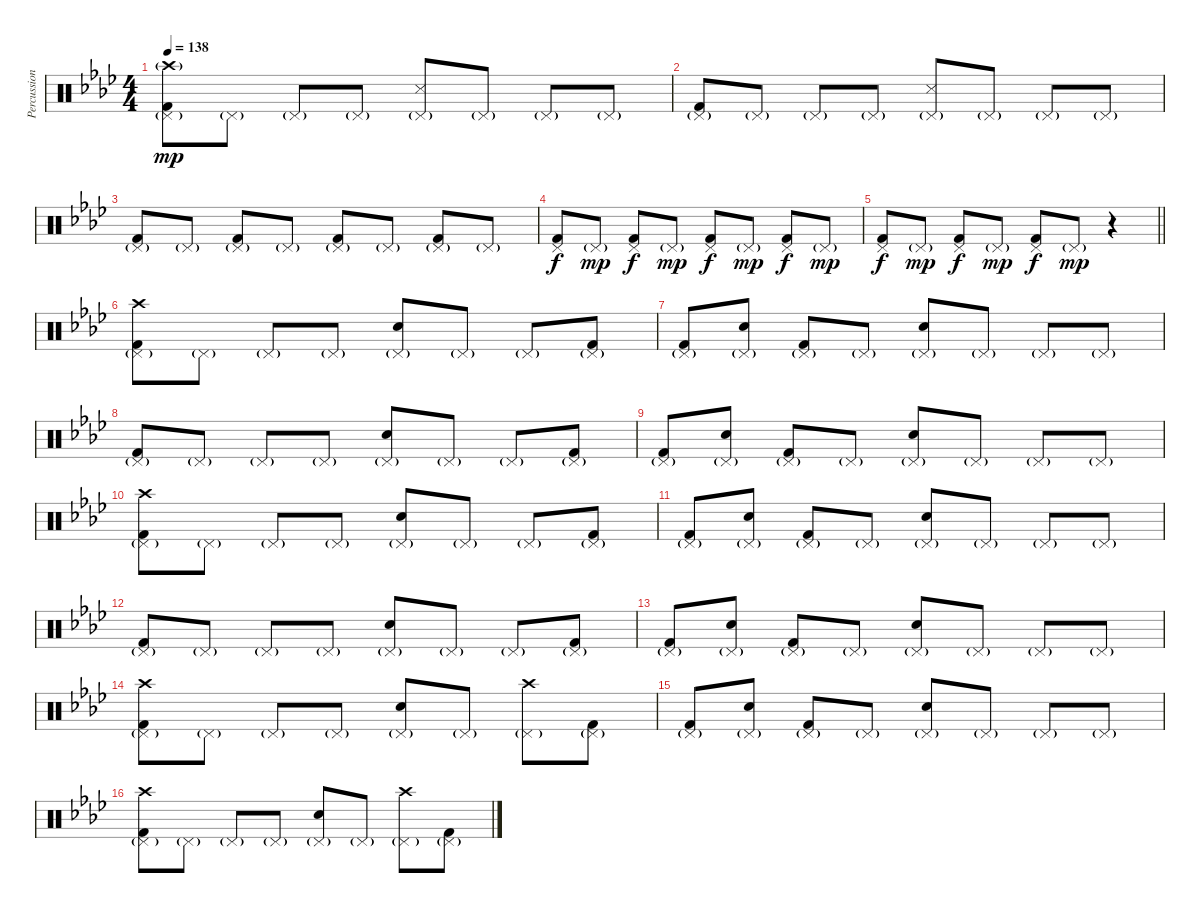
\track ("Percussion" "Percussion") {instrument percussion}
\staff {score}
\articulation defaults
\ts (4 4)
\tempo 138
\clef neutral
\ks ab
("Crash high (hit)"{g} "Kick (hit) 2" "Pedal Hi-Hat (hit)"{g}).8{dy mp} "Pedal Hi-Hat (hit)"{g}.8 "Pedal Hi-Hat (hit)"{g}.8 "Pedal Hi-Hat (hit)"{g}.8 ("Snare (side stick) 3" "Pedal Hi-Hat (hit)"{g}).8 "Pedal Hi-Hat (hit)"{g}.8 "Pedal Hi-Hat (hit)"{g}.8 "Pedal Hi-Hat (hit)"{g}.8 |
("Kick (hit) 2" "Pedal Hi-Hat (hit)"{g}).8 "Pedal Hi-Hat (hit)"{g}.8 "Pedal Hi-Hat (hit)"{g}.8 "Pedal Hi-Hat (hit)"{g}.8 ("Snare (side stick) 3" "Pedal Hi-Hat (hit)"{g}).8 "Pedal Hi-Hat (hit)"{g}.8 "Pedal Hi-Hat (hit)"{g}.8 "Pedal Hi-Hat (hit)"{g}.8 |
("Pedal Hi-Hat (hit)"{g} "Kick (hit) 2").8 "Pedal Hi-Hat (hit)"{g}.8 ("Pedal Hi-Hat (hit)"{g} "Kick (hit) 2").8 "Pedal Hi-Hat (hit)"{g}.8 ("Pedal Hi-Hat (hit)"{g} "Kick (hit) 2").8 "Pedal Hi-Hat (hit)"{g}.8 ("Pedal Hi-Hat (hit)"{g} "Kick (hit) 2").8 "Pedal Hi-Hat (hit)"{g}.8 |
("Pedal Hi-Hat (hit)" "Kick (hit) 2").8{dy f} "Pedal Hi-Hat (hit)"{g}.8{dy mp} ("Pedal Hi-Hat (hit)" "Kick (hit) 2").8{dy f} "Pedal Hi-Hat (hit)"{g}.8{dy mp} ("Pedal Hi-Hat (hit)" "Kick (hit) 2").8{dy f} "Pedal Hi-Hat (hit)"{g}.8{dy mp} ("Pedal Hi-Hat (hit)" "Kick (hit) 2").8{dy f} "Pedal Hi-Hat (hit)"{g}.8{dy mp} |
\barLineRight lightlight
("Pedal Hi-Hat (hit)" "Kick (hit) 2").8{dy f} "Pedal Hi-Hat (hit)"{g}.8{dy mp} ("Pedal Hi-Hat (hit)" "Kick (hit) 2").8{dy f} "Pedal Hi-Hat (hit)"{g}.8{dy mp} ("Pedal Hi-Hat (hit)" "Kick (hit) 2").8{dy f} "Pedal Hi-Hat (hit)"{g}.8{dy mp} r.4 |
("Crash high (hit)" "Pedal Hi-Hat (hit)"{g} "Kick (hit) 2").8 "Pedal Hi-Hat (hit)"{g}.8 "Pedal Hi-Hat (hit)"{g}.8 "Pedal Hi-Hat (hit)"{g}.8 ("Snare (hit) 2" "Pedal Hi-Hat (hit)"{g}).8 "Pedal Hi-Hat (hit)"{g}.8 "Pedal Hi-Hat (hit)"{g}.8 ("Pedal Hi-Hat (hit)"{g} "Kick (hit) 2").8 |
("Pedal Hi-Hat (hit)"{g} "Kick (hit) 2").8 ("Snare (hit) 2" "Pedal Hi-Hat (hit)"{g}).8 ("Pedal Hi-Hat (hit)"{g} "Kick (hit) 2").8 "Pedal Hi-Hat (hit)"{g}.8 ("Snare (hit) 2" "Pedal Hi-Hat (hit)"{g}).8 "Pedal Hi-Hat (hit)"{g}.8 "Pedal Hi-Hat (hit)"{g}.8 "Pedal Hi-Hat (hit)"{g}.8 |
("Pedal Hi-Hat (hit)"{g} "Kick (hit) 2").8 "Pedal Hi-Hat (hit)"{g}.8 "Pedal Hi-Hat (hit)"{g}.8 "Pedal Hi-Hat (hit)"{g}.8 ("Snare (hit) 2" "Pedal Hi-Hat (hit)"{g}).8 "Pedal Hi-Hat (hit)"{g}.8 "Pedal Hi-Hat (hit)"{g}.8 ("Pedal Hi-Hat (hit)"{g} "Kick (hit) 2").8 |
("Pedal Hi-Hat (hit)"{g} "Kick (hit) 2").8 ("Snare (hit) 2" "Pedal Hi-Hat (hit)"{g}).8 ("Pedal Hi-Hat (hit)"{g} "Kick (hit) 2").8 "Pedal Hi-Hat (hit)"{g}.8 ("Snare (hit) 2" "Pedal Hi-Hat (hit)"{g}).8 "Pedal Hi-Hat (hit)"{g}.8 "Pedal Hi-Hat (hit)"{g}.8 "Pedal Hi-Hat (hit)"{g}.8 |
("Crash high (hit)" "Pedal Hi-Hat (hit)"{g} "Kick (hit) 2").8 "Pedal Hi-Hat (hit)"{g}.8 "Pedal Hi-Hat (hit)"{g}.8 "Pedal Hi-Hat (hit)"{g}.8 ("Snare (hit) 2" "Pedal Hi-Hat (hit)"{g}).8 "Pedal Hi-Hat (hit)"{g}.8 "Pedal Hi-Hat (hit)"{g}.8 ("Pedal Hi-Hat (hit)"{g} "Kick (hit) 2").8 |
("Pedal Hi-Hat (hit)"{g} "Kick (hit) 2").8 ("Snare (hit) 2" "Pedal Hi-Hat (hit)"{g}).8 ("Pedal Hi-Hat (hit)"{g} "Kick (hit) 2").8 "Pedal Hi-Hat (hit)"{g}.8 ("Snare (hit) 2" "Pedal Hi-Hat (hit)"{g}).8 "Pedal Hi-Hat (hit)"{g}.8 "Pedal Hi-Hat (hit)"{g}.8 "Pedal Hi-Hat (hit)"{g}.8 |
("Pedal Hi-Hat (hit)"{g} "Kick (hit) 2").8 "Pedal Hi-Hat (hit)"{g}.8 "Pedal Hi-Hat (hit)"{g}.8 "Pedal Hi-Hat (hit)"{g}.8 ("Snare (hit) 2" "Pedal Hi-Hat (hit)"{g}).8 "Pedal Hi-Hat (hit)"{g}.8 "Pedal Hi-Hat (hit)"{g}.8 ("Pedal Hi-Hat (hit)"{g} "Kick (hit) 2").8 |
("Pedal Hi-Hat (hit)"{g} "Kick (hit) 2").8 ("Snare (hit) 2" "Pedal Hi-Hat (hit)"{g}).8 ("Pedal Hi-Hat (hit)"{g} "Kick (hit) 2").8 "Pedal Hi-Hat (hit)"{g}.8 ("Snare (hit) 2" "Pedal Hi-Hat (hit)"{g}).8 "Pedal Hi-Hat (hit)"{g}.8 "Pedal Hi-Hat (hit)"{g}.8 "Pedal Hi-Hat (hit)"{g}.8 |
("Crash high (hit)" "Pedal Hi-Hat (hit)"{g} "Kick (hit) 2").8 "Pedal Hi-Hat (hit)"{g}.8 "Pedal Hi-Hat (hit)"{g}.8 "Pedal Hi-Hat (hit)"{g}.8 ("Snare (hit) 2" "Pedal Hi-Hat (hit)"{g}).8 "Pedal Hi-Hat (hit)"{g}.8 ("Crash high (hit)" "Pedal Hi-Hat (hit)"{g}).8 ("Pedal Hi-Hat (hit)"{g} "Kick (hit) 2").8 |
("Pedal Hi-Hat (hit)"{g} "Kick (hit) 2").8 ("Snare (hit) 2" "Pedal Hi-Hat (hit)"{g}).8 ("Pedal Hi-Hat (hit)"{g} "Kick (hit) 2").8 "Pedal Hi-Hat (hit)"{g}.8 ("Snare (hit) 2" "Pedal Hi-Hat (hit)"{g}).8 "Pedal Hi-Hat (hit)"{g}.8 "Pedal Hi-Hat (hit)"{g}.8 "Pedal Hi-Hat (hit)"{g}.8 |
("Crash high (hit)" "Pedal Hi-Hat (hit)"{g} "Kick (hit) 2").8 "Pedal Hi-Hat (hit)"{g}.8 "Pedal Hi-Hat (hit)"{g}.8 "Pedal Hi-Hat (hit)"{g}.8 ("Snare (hit) 2" "Pedal Hi-Hat (hit)"{g}).8 "Pedal Hi-Hat (hit)"{g}.8 ("Crash high (hit)" "Pedal Hi-Hat (hit)"{g}).8 ("Pedal Hi-Hat (hit)"{g} "Kick (hit) 2").8
